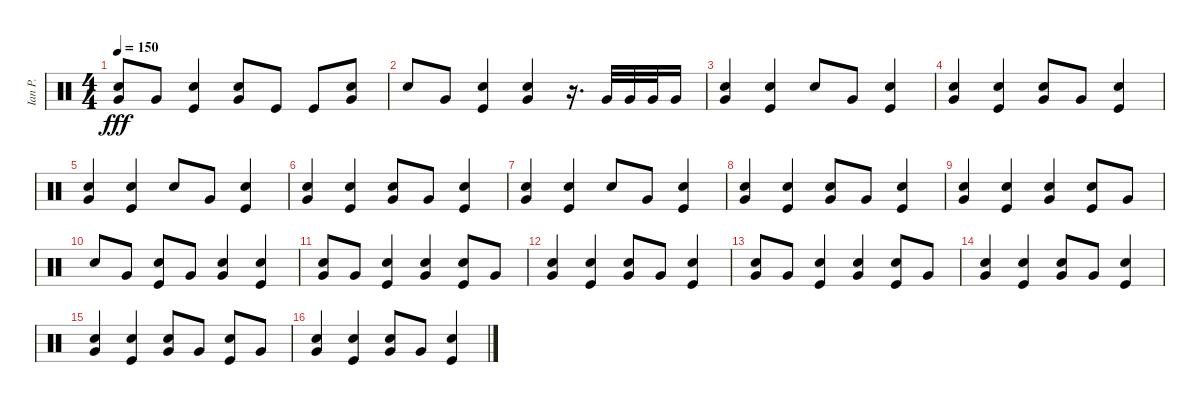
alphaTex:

\track ("Ian P." "Ian P.") {instrument percussion}
\staff {score}
\articulation defaults
\ts (4 4)
\tempo 150
\clef neutral
\ks c
("Very Low Tom (hit)" "Electric Snare (hit)").8{dy fff} "Very Low Tom (hit)".8 ("Kick (hit)" "Electric Snare (hit)").4 ("Very Low Tom (hit)" "Electric Snare (hit)").8 "Kick (hit)".8 "Kick (hit)".8 ("Very Low Tom (hit)" "Electric Snare (hit)").8 |
"Electric Snare (hit)".8 "Very Low Tom (hit)".8 ("Kick (hit)" "Electric Snare (hit)").4 ("Very Low Tom (hit)" "Electric Snare (hit)").4 r.16{d} "Very Low Tom (hit)".32 "Very Low Tom (hit)".32 "Very Low Tom (hit)".32 "Very Low Tom (hit)".16 |
("Very Low Tom (hit)" "Electric Snare (hit)").4 ("Kick (hit)" "Electric Snare (hit)").4 "Electric Snare (hit)".8 "Very Low Tom (hit)".8 ("Electric Snare (hit)" "Kick (hit)").4 |
("Very Low Tom (hit)" "Electric Snare (hit)").4 ("Kick (hit)" "Electric Snare (hit)").4 ("Very Low Tom (hit)" "Electric Snare (hit)").8 "Very Low Tom (hit)".8 ("Kick (hit)" "Electric Snare (hit)").4 |
("Very Low Tom (hit)" "Electric Snare (hit)").4 ("Kick (hit)" "Electric Snare (hit)").4 "Electric Snare (hit)".8 "Very Low Tom (hit)".8 ("Electric Snare (hit)" "Kick (hit)").4 |
("Very Low Tom (hit)" "Electric Snare (hit)").4 ("Kick (hit)" "Electric Snare (hit)").4 ("Very Low Tom (hit)" "Electric Snare (hit)").8 "Very Low Tom (hit)".8 ("Kick (hit)" "Electric Snare (hit)").4 |
("Very Low Tom (hit)" "Electric Snare (hit)").4 ("Kick (hit)" "Electric Snare (hit)").4 "Electric Snare (hit)".8 "Very Low Tom (hit)".8 ("Electric Snare (hit)" "Kick (hit)").4 |
("Very Low Tom (hit)" "Electric Snare (hit)").4 ("Kick (hit)" "Electric Snare (hit)").4 ("Very Low Tom (hit)" "Electric Snare (hit)").8 "Very Low Tom (hit)".8 ("Kick (hit)" "Electric Snare (hit)").4 |
("Very Low Tom (hit)" "Electric Snare (hit)").4 ("Kick (hit)" "Electric Snare (hit)").4 ("Very Low Tom (hit)" "Electric Snare (hit)").4 ("Kick (hit)" "Electric Snare (hit)").8 "Very Low Tom (hit)".8 |
"Electric Snare (hit)".8 "Very Low Tom (hit)".8 ("Electric Snare (hit)" "Kick (hit)").8 "Very Low Tom (hit)".8 ("Electric Snare (hit)" "Very Low Tom (hit)").4 ("Kick (hit)" "Electric Snare (hit)").4 |
("Very Low Tom (hit)" "Electric Snare (hit)").8 "Very Low Tom (hit)".8 ("Kick (hit)" "Electric Snare (hit)").4 ("Very Low Tom (hit)" "Electric Snare (hit)").4 ("Kick (hit)" "Electric Snare (hit)").8 "Very Low Tom (hit)".8 |
("Very Low Tom (hit)" "Electric Snare (hit)").4 ("Kick (hit)" "Electric Snare (hit)").4 ("Very Low Tom (hit)" "Electric Snare (hit)").8 "Very Low Tom (hit)".8 ("Kick (hit)" "Electric Snare (hit)").4 |
("Very Low Tom (hit)" "Electric Snare (hit)").8 "Very Low Tom (hit)".8 ("Kick (hit)" "Electric Snare (hit)").4 ("Very Low Tom (hit)" "Electric Snare (hit)").4 ("Kick (hit)" "Electric Snare (hit)").8 "Very Low Tom (hit)".8 |
("Very Low Tom (hit)" "Electric Snare (hit)").4 ("Kick (hit)" "Electric Snare (hit)").4 ("Very Low Tom (hit)" "Electric Snare (hit)").8 "Very Low Tom (hit)".8 ("Kick (hit)" "Electric Snare (hit)").4 |
("Very Low Tom (hit)" "Electric Snare (hit)").4 ("Kick (hit)" "Electric Snare (hit)").4 ("Very Low Tom (hit)" "Electric Snare (hit)").8 "Very Low Tom (hit)".8 ("Kick (hit)" "Electric Snare (hit)").8 "Very Low Tom (hit)".8 |
("Very Low Tom (hit)" "Electric Snare (hit)").4 ("Kick (hit)" "Electric Snare (hit)").4 ("Electric Snare (hit)" "Very Low Tom (hit)").8 "Very Low Tom (hit)".8 ("Kick (hit)" "Electric Snare (hit)").4
